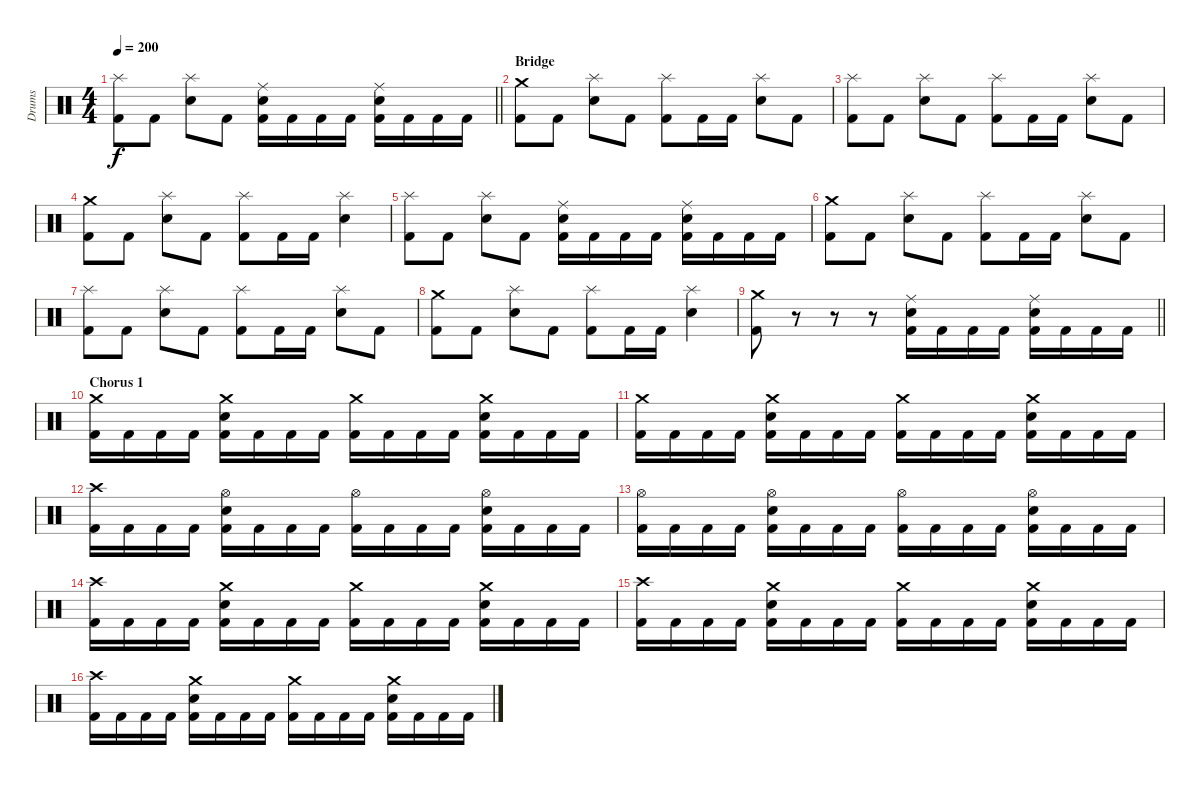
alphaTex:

\track ("Drums" "Drums") {instrument percussion}
\staff {score}
\articulation defaults
\ts (4 4)
\tempo 200
\clef neutral
\barLineRight lightlight
\ks c
("Splash (hit)" "Kick (hit) 2").8{dy f} "Kick (hit) 2".8 ("Splash (hit)" "Electric Snare (hit)").8 "Kick (hit) 2".8 ("Ride (middle)" "Electric Snare (hit)" "Kick (hit) 2").16 "Kick (hit) 2".16 "Kick (hit) 2".16 "Kick (hit) 2".16 ("Ride (middle)" "Electric Snare (hit)" "Kick (hit) 2").16 "Kick (hit) 2".16 "Kick (hit) 2".16 "Kick (hit) 2".16 |
\section ("" "Bridge")
("Crash medium (hit)" "Kick (hit) 2").8 "Kick (hit) 2".8 ("Splash (hit)" "Electric Snare (hit)").8 "Kick (hit) 2".8 ("Splash (hit)" "Kick (hit) 2").8 "Kick (hit) 2".16 "Kick (hit) 2".16 ("Splash (hit)" "Electric Snare (hit)").8 "Kick (hit) 2".8 |
("Splash (hit)" "Kick (hit) 2").8 "Kick (hit) 2".8 ("Splash (hit)" "Electric Snare (hit)").8 "Kick (hit) 2".8 ("Splash (hit)" "Kick (hit) 2").8 "Kick (hit) 2".16 "Kick (hit) 2".16 ("Splash (hit)" "Electric Snare (hit)").8 "Kick (hit) 2".8 |
("Crash medium (hit)" "Kick (hit) 2").8 "Kick (hit) 2".8 ("Splash (hit)" "Electric Snare (hit)").8 "Kick (hit) 2".8 ("Splash (hit)" "Kick (hit) 2").8 "Kick (hit) 2".16 "Kick (hit) 2".16 ("Splash (hit)" "Electric Snare (hit)").4 |
("Splash (hit)" "Kick (hit) 2").8 "Kick (hit) 2".8 ("Splash (hit)" "Electric Snare (hit)").8 "Kick (hit) 2".8 ("Ride (middle)" "Electric Snare (hit)" "Kick (hit) 2").16 "Kick (hit) 2".16 "Kick (hit) 2".16 "Kick (hit) 2".16 ("Ride (middle)" "Electric Snare (hit)" "Kick (hit) 2").16 "Kick (hit) 2".16 "Kick (hit) 2".16 "Kick (hit) 2".16 |
("Crash medium (hit)" "Kick (hit) 2").8 "Kick (hit) 2".8 ("Splash (hit)" "Electric Snare (hit)").8 "Kick (hit) 2".8 ("Splash (hit)" "Kick (hit) 2").8 "Kick (hit) 2".16 "Kick (hit) 2".16 ("Splash (hit)" "Electric Snare (hit)").8 "Kick (hit) 2".8 |
("Splash (hit)" "Kick (hit) 2").8 "Kick (hit) 2".8 ("Splash (hit)" "Electric Snare (hit)").8 "Kick (hit) 2".8 ("Splash (hit)" "Kick (hit) 2").8 "Kick (hit) 2".16 "Kick (hit) 2".16 ("Splash (hit)" "Electric Snare (hit)").8 "Kick (hit) 2".8 |
("Crash medium (hit)" "Kick (hit) 2").8 "Kick (hit) 2".8 ("Splash (hit)" "Electric Snare (hit)").8 "Kick (hit) 2".8 ("Splash (hit)" "Kick (hit) 2").8 "Kick (hit) 2".16 "Kick (hit) 2".16 ("Splash (hit)" "Electric Snare (hit)").4 |
\barLineRight lightlight
("Crash medium (hit)" "Kick (hit) 2").8 r.8 r.8 r.8 ("Ride (middle)" "Electric Snare (hit)" "Kick (hit) 2").16 "Kick (hit) 2".16 "Kick (hit) 2".16 "Kick (hit) 2".16 ("Ride (middle)" "Electric Snare (hit)" "Kick (hit) 2").16 "Kick (hit) 2".16 "Kick (hit) 2".16 "Kick (hit) 2".16 |
\section ("" "Chorus 1")
("Crash medium (hit)" "Kick (hit) 2").16 "Kick (hit) 2".16 "Kick (hit) 2".16 "Kick (hit) 2".16 ("Crash medium (hit)" "Electric Snare (hit)" "Kick (hit) 2").16 "Kick (hit) 2".16 "Kick (hit) 2".16 "Kick (hit) 2".16 ("Crash medium (hit)" "Kick (hit) 2").16 "Kick (hit) 2".16 "Kick (hit) 2".16 "Kick (hit) 2".16 ("Crash medium (hit)" "Electric Snare (hit)" "Kick (hit) 2").16 "Kick (hit) 2".16 "Kick (hit) 2".16 "Kick (hit) 2".16 |
("Crash medium (hit)" "Kick (hit) 2").16 "Kick (hit) 2".16 "Kick (hit) 2".16 "Kick (hit) 2".16 ("Crash medium (hit)" "Electric Snare (hit)" "Kick (hit) 2").16 "Kick (hit) 2".16 "Kick (hit) 2".16 "Kick (hit) 2".16 ("Crash medium (hit)" "Kick (hit) 2").16 "Kick (hit) 2".16 "Kick (hit) 2".16 "Kick (hit) 2".16 ("Crash medium (hit)" "Electric Snare (hit)" "Kick (hit) 2").16 "Kick (hit) 2".16 "Kick (hit) 2".16 "Kick (hit) 2".16 |
("Crash high (hit)" "Kick (hit) 2").16 "Kick (hit) 2".16 "Kick (hit) 2".16 "Kick (hit) 2".16 ("Hi-Hat (open)" "Electric Snare (hit)" "Kick (hit) 2").16 "Kick (hit) 2".16 "Kick (hit) 2".16 "Kick (hit) 2".16 ("Hi-Hat (open)" "Kick (hit) 2").16 "Kick (hit) 2".16 "Kick (hit) 2".16 "Kick (hit) 2".16 ("Hi-Hat (open)" "Electric Snare (hit)" "Kick (hit) 2").16 "Kick (hit) 2".16 "Kick (hit) 2".16 "Kick (hit) 2".16 |
("Hi-Hat (open)" "Kick (hit) 2").16 "Kick (hit) 2".16 "Kick (hit) 2".16 "Kick (hit) 2".16 ("Hi-Hat (open)" "Electric Snare (hit)" "Kick (hit) 2").16 "Kick (hit) 2".16 "Kick (hit) 2".16 "Kick (hit) 2".16 ("Hi-Hat (open)" "Kick (hit) 2").16 "Kick (hit) 2".16 "Kick (hit) 2".16 "Kick (hit) 2".16 ("Hi-Hat (open)" "Electric Snare (hit)" "Kick (hit) 2").16 "Kick (hit) 2".16 "Kick (hit) 2".16 "Kick (hit) 2".16 |
("Crash high (hit)" "Kick (hit) 2").16 "Kick (hit) 2".16 "Kick (hit) 2".16 "Kick (hit) 2".16 ("Crash medium (hit)" "Electric Snare (hit)" "Kick (hit) 2").16 "Kick (hit) 2".16 "Kick (hit) 2".16 "Kick (hit) 2".16 ("Crash medium (hit)" "Kick (hit) 2").16 "Kick (hit) 2".16 "Kick (hit) 2".16 "Kick (hit) 2".16 ("Crash medium (hit)" "Electric Snare (hit)" "Kick (hit) 2").16 "Kick (hit) 2".16 "Kick (hit) 2".16 "Kick (hit) 2".16 |
("Crash high (hit)" "Kick (hit) 2").16 "Kick (hit) 2".16 "Kick (hit) 2".16 "Kick (hit) 2".16 ("Crash medium (hit)" "Electric Snare (hit)" "Kick (hit) 2").16 "Kick (hit) 2".16 "Kick (hit) 2".16 "Kick (hit) 2".16 ("Crash medium (hit)" "Kick (hit) 2").16 "Kick (hit) 2".16 "Kick (hit) 2".16 "Kick (hit) 2".16 ("Crash medium (hit)" "Electric Snare (hit)" "Kick (hit) 2").16 "Kick (hit) 2".16 "Kick (hit) 2".16 "Kick (hit) 2".16 |
("Crash high (hit)" "Kick (hit) 2").16 "Kick (hit) 2".16 "Kick (hit) 2".16 "Kick (hit) 2".16 ("Crash medium (hit)" "Electric Snare (hit)" "Kick (hit) 2").16 "Kick (hit) 2".16 "Kick (hit) 2".16 "Kick (hit) 2".16 ("Crash medium (hit)" "Kick (hit) 2").16 "Kick (hit) 2".16 "Kick (hit) 2".16 "Kick (hit) 2".16 ("Crash medium (hit)" "Electric Snare (hit)" "Kick (hit) 2").16 "Kick (hit) 2".16 "Kick (hit) 2".16 "Kick (hit) 2".16
